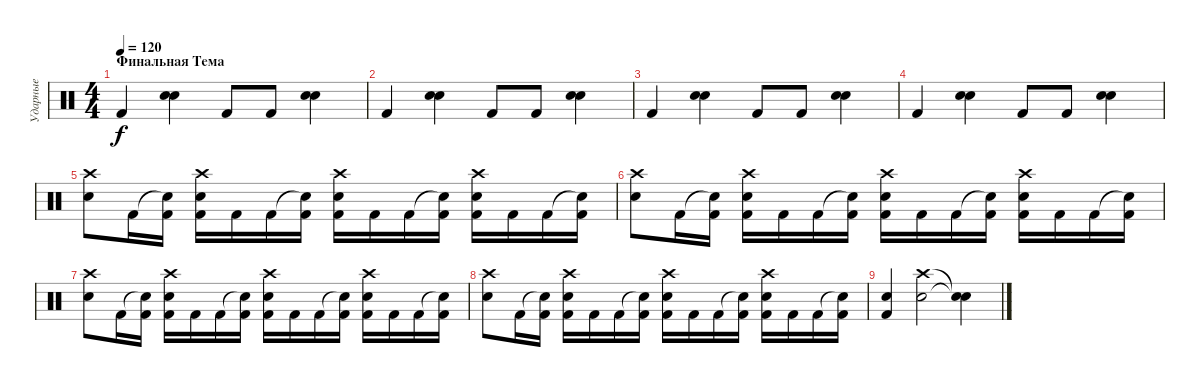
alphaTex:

\track ("Ударные" "Ударные") {instrument percussion}
\staff {score}
\articulation defaults
\ts (4 4)
\section ("" "Финальная Тема")
\tempo 120
\clef neutral
\ks c "Kick (hit) 2".4{dy f}
("Snare (hit) 2" "Electric Snare (hit)").4 "Kick (hit) 2".8 "Kick (hit) 2".8 ("Snare (hit) 2" "Electric Snare (hit)").4 |
"Kick (hit) 2".4 ("Snare (hit) 2" "Electric Snare (hit)").4 "Kick (hit) 2".8 "Kick (hit) 2".8 ("Snare (hit) 2" "Electric Snare (hit)").4 |
"Kick (hit) 2".4 ("Snare (hit) 2" "Electric Snare (hit)").4 "Kick (hit) 2".8 "Kick (hit) 2".8 ("Snare (hit) 2" "Electric Snare (hit)").4 |
"Kick (hit) 2".4 ("Snare (hit) 2" "Electric Snare (hit)").4 "Kick (hit) 2".8 "Kick (hit) 2".8 ("Snare (hit) 2" "Electric Snare (hit)").4 |
("Crash high (hit)" "Electric Snare (hit)").8 "Kick (hit) 2".16 ("Snare (hit)"{t} "Kick (hit) 2").16 ("Crash high (hit)" "Kick (hit) 2" "Electric Snare (hit)").16 "Kick (hit) 2".16 "Kick (hit) 2".16 ("Snare (hit)"{t} "Kick (hit) 2").16 ("Crash high (hit)" "Kick (hit) 2" "Electric Snare (hit)").16 "Kick (hit) 2".16 "Kick (hit) 2".16 ("Snare (hit)"{t} "Kick (hit) 2").16 ("Crash high (hit)" "Kick (hit) 2" "Electric Snare (hit)").16 "Kick (hit) 2".16 "Kick (hit) 2".16 ("Snare (hit)"{t} "Kick (hit) 2").16 |
("Crash high (hit)" "Electric Snare (hit)").8 "Kick (hit) 2".16 ("Snare (hit)"{t} "Kick (hit) 2").16 ("Crash high (hit)" "Kick (hit) 2" "Electric Snare (hit)").16 "Kick (hit) 2".16 "Kick (hit) 2".16 ("Snare (hit)"{t} "Kick (hit) 2").16 ("Crash high (hit)" "Kick (hit) 2" "Electric Snare (hit)").16 "Kick (hit) 2".16 "Kick (hit) 2".16 ("Snare (hit)"{t} "Kick (hit) 2").16 ("Crash high (hit)" "Kick (hit) 2" "Electric Snare (hit)").16 "Kick (hit) 2".16 "Kick (hit) 2".16 ("Snare (hit)"{t} "Kick (hit) 2").16 |
("Crash high (hit)" "Electric Snare (hit)").8 "Kick (hit) 2".16 ("Snare (hit)"{t} "Kick (hit) 2").16 ("Crash high (hit)" "Kick (hit) 2" "Electric Snare (hit)").16 "Kick (hit) 2".16 "Kick (hit) 2".16 ("Snare (hit)"{t} "Kick (hit) 2").16 ("Crash high (hit)" "Kick (hit) 2" "Electric Snare (hit)").16 "Kick (hit) 2".16 "Kick (hit) 2".16 ("Snare (hit)"{t} "Kick (hit) 2").16 ("Crash high (hit)" "Kick (hit) 2" "Electric Snare (hit)").16 "Kick (hit) 2".16 "Kick (hit) 2".16 ("Snare (hit)"{t} "Kick (hit) 2").16 |
("Crash high (hit)" "Electric Snare (hit)").8 "Kick (hit) 2".16 ("Snare (hit)"{t} "Kick (hit) 2").16 ("Crash high (hit)" "Kick (hit) 2" "Electric Snare (hit)").16 "Kick (hit) 2".16 "Kick (hit) 2".16 ("Snare (hit)"{t} "Kick (hit) 2").16 ("Crash high (hit)" "Kick (hit) 2" "Electric Snare (hit)").16 "Kick (hit) 2".16 "Kick (hit) 2".16 ("Snare (hit)"{t} "Kick (hit) 2").16 ("Crash high (hit)" "Kick (hit) 2" "Electric Snare (hit)").16 "Kick (hit) 2".16 "Kick (hit) 2".16 ("Snare (hit)"{t} "Kick (hit) 2").16 |
("Kick (hit) 2" "Snare (hit) 2").4 ("Electric Snare (hit)" "Crash high (hit)").2 ("Snare (hit)"{t} "Snare (hit)"{t}).4
